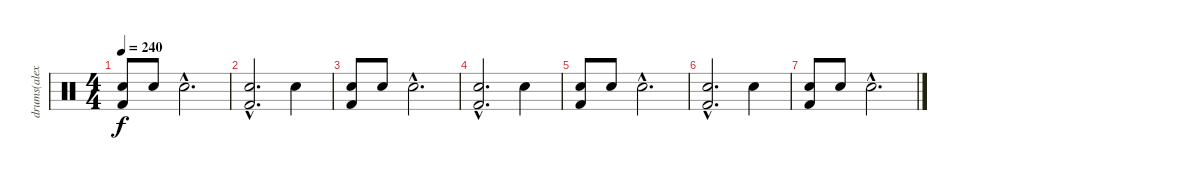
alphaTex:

\track ("drums(alex holzshwart)" "drums(alex") {instrument percussion}
\staff {score}
\articulation defaults
\ts (4 4)
\tempo 240
\clef neutral
\ks c
("Electric Snare (hit)" "Kick (hit) 2").8{dy f} "Electric Snare (hit)".8 "Electric Snare (hit)"{hac}.2{d} |
("Electric Snare (hit)"{hac} "Kick (hit) 2"{hac}).2{d} "Electric Snare (hit)".4 |
("Electric Snare (hit)" "Kick (hit) 2").8 "Electric Snare (hit)".8 "Electric Snare (hit)"{hac}.2{d} |
("Electric Snare (hit)"{hac} "Kick (hit) 2"{hac}).2{d} "Electric Snare (hit)".4 |
("Electric Snare (hit)" "Kick (hit) 2").8 "Electric Snare (hit)".8 "Electric Snare (hit)"{hac}.2{d} |
("Electric Snare (hit)"{hac} "Kick (hit) 2"{hac}).2{d} "Electric Snare (hit)".4 |
("Electric Snare (hit)" "Kick (hit) 2").8 "Electric Snare (hit)".8 "Electric Snare (hit)"{hac}.2{d}
